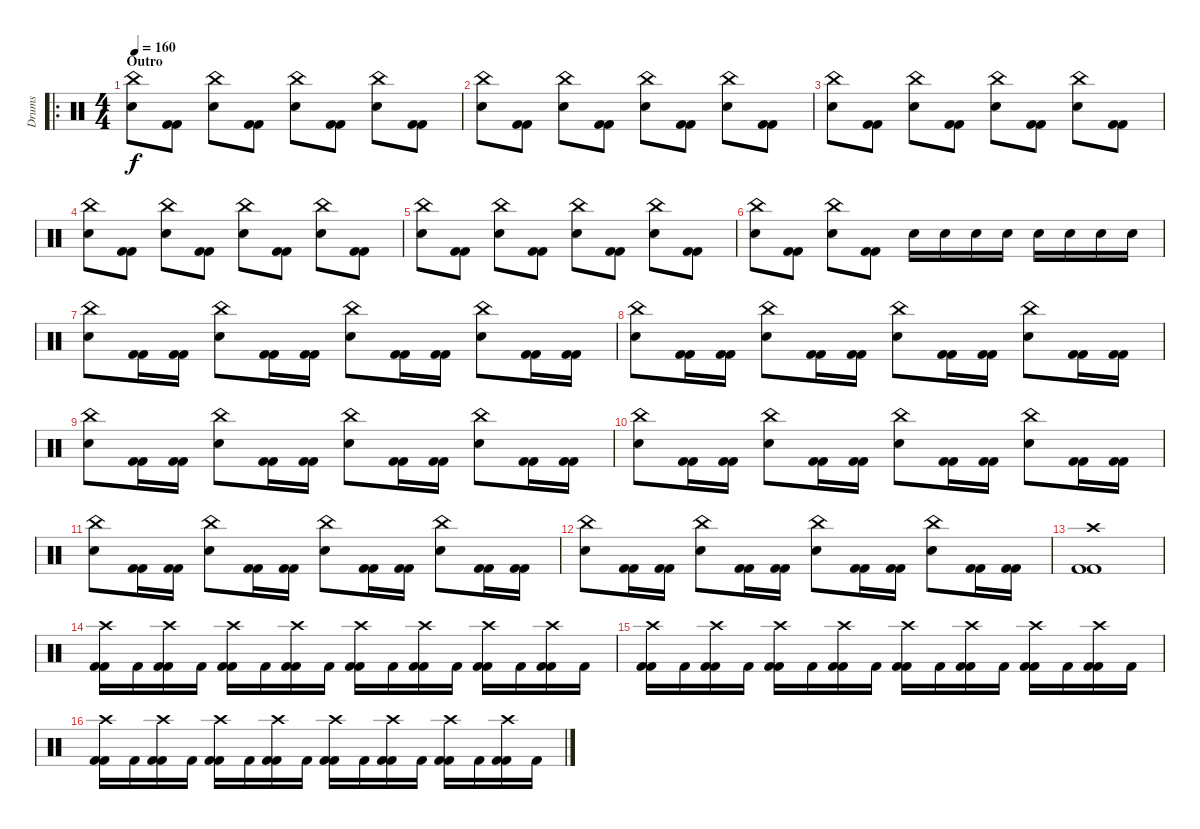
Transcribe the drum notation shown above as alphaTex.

\track ("Drums" "Drums") {instrument percussion}
\staff {score}
\articulation defaults
\ro
\ts (4 4)
\section ("" "Outro")
\tempo 160
\clef neutral
\ks c
("Electric Snare (hit)" "China (hit)").8{dy f} ("Kick (hit) 2" "Kick (hit) 2").8 ("Electric Snare (hit)" "China (hit)").8 ("Kick (hit) 2" "Kick (hit) 2").8 ("Electric Snare (hit)" "China (hit)").8 ("Kick (hit) 2" "Kick (hit) 2").8 ("Electric Snare (hit)" "China (hit)").8 ("Kick (hit) 2" "Kick (hit) 2").8 |
("Electric Snare (hit)" "China (hit)").8 ("Kick (hit) 2" "Kick (hit) 2").8 ("Electric Snare (hit)" "China (hit)").8 ("Kick (hit) 2" "Kick (hit) 2").8 ("Electric Snare (hit)" "China (hit)").8 ("Kick (hit) 2" "Kick (hit) 2").8 ("Electric Snare (hit)" "China (hit)").8 ("Kick (hit) 2" "Kick (hit) 2").8 |
("Electric Snare (hit)" "China (hit)").8 ("Kick (hit) 2" "Kick (hit) 2").8 ("Electric Snare (hit)" "China (hit)").8 ("Kick (hit) 2" "Kick (hit) 2").8 ("Electric Snare (hit)" "China (hit)").8 ("Kick (hit) 2" "Kick (hit) 2").8 ("Electric Snare (hit)" "China (hit)").8 ("Kick (hit) 2" "Kick (hit) 2").8 |
("Electric Snare (hit)" "China (hit)").8 ("Kick (hit) 2" "Kick (hit) 2").8 ("Electric Snare (hit)" "China (hit)").8 ("Kick (hit) 2" "Kick (hit) 2").8 ("Electric Snare (hit)" "China (hit)").8 ("Kick (hit) 2" "Kick (hit) 2").8 ("Electric Snare (hit)" "China (hit)").8 ("Kick (hit) 2" "Kick (hit) 2").8 |
("Electric Snare (hit)" "China (hit)").8 ("Kick (hit) 2" "Kick (hit) 2").8 ("Electric Snare (hit)" "China (hit)").8 ("Kick (hit) 2" "Kick (hit) 2").8 ("Electric Snare (hit)" "China (hit)").8 ("Kick (hit) 2" "Kick (hit) 2").8 ("Electric Snare (hit)" "China (hit)").8 ("Kick (hit) 2" "Kick (hit) 2").8 |
("Electric Snare (hit)" "China (hit)").8 ("Kick (hit) 2" "Kick (hit) 2").8 ("Electric Snare (hit)" "China (hit)").8 ("Kick (hit) 2" "Kick (hit) 2").8 "Electric Snare (hit)".16 "Electric Snare (hit)".16 "Electric Snare (hit)".16 "Electric Snare (hit)".16 "Electric Snare (hit)".16 "Electric Snare (hit)".16 "Electric Snare (hit)".16 "Electric Snare (hit)".16 |
("China (hit)" "Electric Snare (hit)").8 ("Kick (hit) 2" "Kick (hit) 2").16 ("Kick (hit) 2" "Kick (hit) 2").16 ("Electric Snare (hit)" "China (hit)").8 ("Kick (hit) 2" "Kick (hit) 2").16 ("Kick (hit) 2" "Kick (hit) 2").16 ("China (hit)" "Electric Snare (hit)").8 ("Kick (hit) 2" "Kick (hit) 2").16 ("Kick (hit) 2" "Kick (hit) 2").16 ("Electric Snare (hit)" "China (hit)").8 ("Kick (hit) 2" "Kick (hit) 2").16 ("Kick (hit) 2" "Kick (hit) 2").16 |
("China (hit)" "Electric Snare (hit)").8 ("Kick (hit) 2" "Kick (hit) 2").16 ("Kick (hit) 2" "Kick (hit) 2").16 ("Electric Snare (hit)" "China (hit)").8 ("Kick (hit) 2" "Kick (hit) 2").16 ("Kick (hit) 2" "Kick (hit) 2").16 ("China (hit)" "Electric Snare (hit)").8 ("Kick (hit) 2" "Kick (hit) 2").16 ("Kick (hit) 2" "Kick (hit) 2").16 ("Electric Snare (hit)" "China (hit)").8 ("Kick (hit) 2" "Kick (hit) 2").16 ("Kick (hit) 2" "Kick (hit) 2").16 |
("China (hit)" "Electric Snare (hit)").8 ("Kick (hit) 2" "Kick (hit) 2").16 ("Kick (hit) 2" "Kick (hit) 2").16 ("Electric Snare (hit)" "China (hit)").8 ("Kick (hit) 2" "Kick (hit) 2").16 ("Kick (hit) 2" "Kick (hit) 2").16 ("China (hit)" "Electric Snare (hit)").8 ("Kick (hit) 2" "Kick (hit) 2").16 ("Kick (hit) 2" "Kick (hit) 2").16 ("Electric Snare (hit)" "China (hit)").8 ("Kick (hit) 2" "Kick (hit) 2").16 ("Kick (hit) 2" "Kick (hit) 2").16 |
("China (hit)" "Electric Snare (hit)").8 ("Kick (hit) 2" "Kick (hit) 2").16 ("Kick (hit) 2" "Kick (hit) 2").16 ("Electric Snare (hit)" "China (hit)").8 ("Kick (hit) 2" "Kick (hit) 2").16 ("Kick (hit) 2" "Kick (hit) 2").16 ("China (hit)" "Electric Snare (hit)").8 ("Kick (hit) 2" "Kick (hit) 2").16 ("Kick (hit) 2" "Kick (hit) 2").16 ("Electric Snare (hit)" "China (hit)").8 ("Kick (hit) 2" "Kick (hit) 2").16 ("Kick (hit) 2" "Kick (hit) 2").16 |
("China (hit)" "Electric Snare (hit)").8 ("Kick (hit) 2" "Kick (hit) 2").16 ("Kick (hit) 2" "Kick (hit) 2").16 ("Electric Snare (hit)" "China (hit)").8 ("Kick (hit) 2" "Kick (hit) 2").16 ("Kick (hit) 2" "Kick (hit) 2").16 ("China (hit)" "Electric Snare (hit)").8 ("Kick (hit) 2" "Kick (hit) 2").16 ("Kick (hit) 2" "Kick (hit) 2").16 ("Electric Snare (hit)" "China (hit)").8 ("Kick (hit) 2" "Kick (hit) 2").16 ("Kick (hit) 2" "Kick (hit) 2").16 |
("China (hit)" "Electric Snare (hit)").8 ("Kick (hit) 2" "Kick (hit) 2").16 ("Kick (hit) 2" "Kick (hit) 2").16 ("Electric Snare (hit)" "China (hit)").8 ("Kick (hit) 2" "Kick (hit) 2").16 ("Kick (hit) 2" "Kick (hit) 2").16 ("China (hit)" "Electric Snare (hit)").8 ("Kick (hit) 2" "Kick (hit) 2").16 ("Kick (hit) 2" "Kick (hit) 2").16 ("Electric Snare (hit)" "China (hit)").8 ("Kick (hit) 2" "Kick (hit) 2").16 ("Kick (hit) 2" "Kick (hit) 2").16 |
("Crash high (hit)" "Kick (hit) 2" "Kick (hit) 2").1 |
("Crash high (hit)" "Kick (hit) 2" "Kick (hit) 2").16 "Kick (hit) 2".16 ("Kick (hit) 2" "Kick (hit) 2" "Crash high (hit)").16 "Kick (hit) 2".16 ("Crash high (hit)" "Kick (hit) 2" "Kick (hit) 2").16 "Kick (hit) 2".16 ("Kick (hit) 2" "Kick (hit) 2" "Crash high (hit)").16 "Kick (hit) 2".16 ("Crash high (hit)" "Kick (hit) 2" "Kick (hit) 2").16 "Kick (hit) 2".16 ("Kick (hit) 2" "Kick (hit) 2" "Crash high (hit)").16 "Kick (hit) 2".16 ("Crash high (hit)" "Kick (hit) 2" "Kick (hit) 2").16 "Kick (hit) 2".16 ("Kick (hit) 2" "Kick (hit) 2" "Crash high (hit)").16 "Kick (hit) 2".16 |
("Crash high (hit)" "Kick (hit) 2" "Kick (hit) 2").16 "Kick (hit) 2".16 ("Kick (hit) 2" "Kick (hit) 2" "Crash high (hit)").16 "Kick (hit) 2".16 ("Crash high (hit)" "Kick (hit) 2" "Kick (hit) 2").16 "Kick (hit) 2".16 ("Kick (hit) 2" "Kick (hit) 2" "Crash high (hit)").16 "Kick (hit) 2".16 ("Crash high (hit)" "Kick (hit) 2" "Kick (hit) 2").16 "Kick (hit) 2".16 ("Kick (hit) 2" "Kick (hit) 2" "Crash high (hit)").16 "Kick (hit) 2".16 ("Crash high (hit)" "Kick (hit) 2" "Kick (hit) 2").16 "Kick (hit) 2".16 ("Kick (hit) 2" "Kick (hit) 2" "Crash high (hit)").16 "Kick (hit) 2".16 |
("Crash high (hit)" "Kick (hit) 2" "Kick (hit) 2").16 "Kick (hit) 2".16 ("Kick (hit) 2" "Kick (hit) 2" "Crash high (hit)").16 "Kick (hit) 2".16 ("Crash high (hit)" "Kick (hit) 2" "Kick (hit) 2").16 "Kick (hit) 2".16 ("Kick (hit) 2" "Kick (hit) 2" "Crash high (hit)").16 "Kick (hit) 2".16 ("Crash high (hit)" "Kick (hit) 2" "Kick (hit) 2").16 "Kick (hit) 2".16 ("Kick (hit) 2" "Kick (hit) 2" "Crash high (hit)").16 "Kick (hit) 2".16 ("Crash high (hit)" "Kick (hit) 2" "Kick (hit) 2").16 "Kick (hit) 2".16 ("Kick (hit) 2" "Kick (hit) 2" "Crash high (hit)").16 "Kick (hit) 2".16
